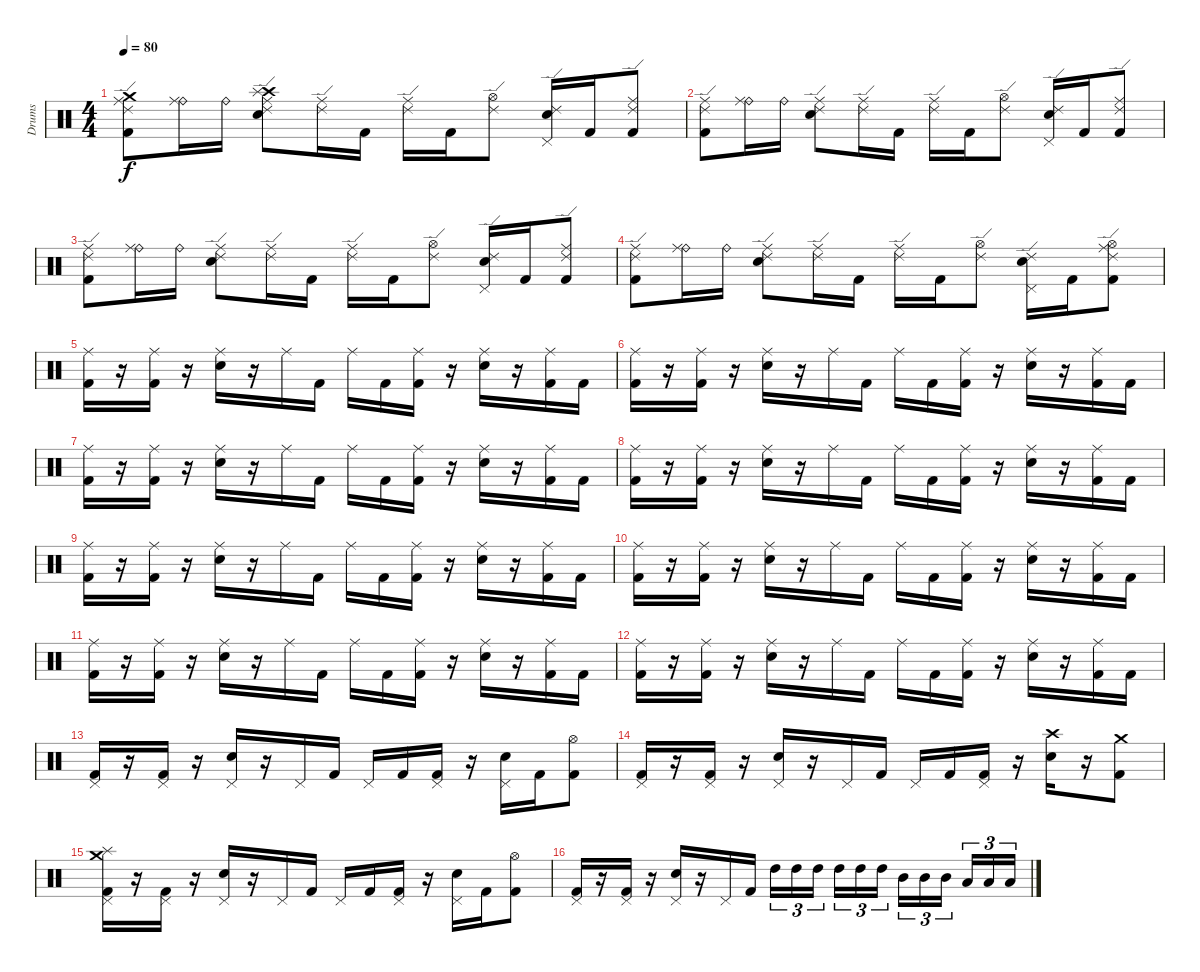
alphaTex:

\track ("Drums" "Drums") {instrument percussion}
\staff {score}
\articulation defaults
\ts (4 4)
\tempo 80
\clef neutral
\ks c
("Ride (edge) 2" "Ride (middle)" "Crash medium (hit)" "Kick (hit) 2").8{dy f} ("Ride (bell)" "Ride (middle)").16 "Ride (bell)".16 ("Ride (middle)" "Ride (edge) 2" "Crash high (hit)" "Snare (hit) 2" "Splash (hit)").8 ("Ride (edge) 2" "Ride (middle)").16 "Kick (hit) 2".16 ("Ride (edge) 2" "Ride (middle)").16 "Kick (hit) 2".16 ("Ride (edge) 2" "Hi-Hat (open)").8 ("Ride (edge) 2" "Pedal Hi-Hat (hit)" "Snare (hit) 2").16 "Kick (hit) 2".16 ("Ride (edge) 2" "Ride (middle)" "Kick (hit) 2").8 |
("Ride (edge) 2" "Ride (middle)" "Kick (hit) 2").8 ("Ride (bell)" "Ride (middle)").16 "Ride (bell)".16 ("Ride (middle)" "Ride (edge) 2" "Snare (hit) 2").8 ("Ride (edge) 2" "Ride (middle)").16 "Kick (hit) 2".16 ("Ride (edge) 2" "Ride (middle)").16 "Kick (hit) 2".16 ("Ride (edge) 2" "Hi-Hat (open)").8 ("Ride (edge) 2" "Pedal Hi-Hat (hit)" "Snare (hit) 2").16 "Kick (hit) 2".16 ("Ride (edge) 2" "Ride (middle)" "Kick (hit) 2").8 |
("Ride (edge) 2" "Ride (middle)" "Kick (hit) 2").8 ("Ride (bell)" "Ride (middle)").16 "Ride (bell)".16 ("Ride (middle)" "Ride (edge) 2" "Snare (hit) 2").8 ("Ride (edge) 2" "Ride (middle)").16 "Kick (hit) 2".16 ("Ride (edge) 2" "Ride (middle)").16 "Kick (hit) 2".16 ("Ride (edge) 2" "Hi-Hat (open)").8 ("Ride (edge) 2" "Pedal Hi-Hat (hit)" "Snare (hit) 2").16 "Kick (hit) 2".16 ("Ride (edge) 2" "Ride (middle)" "Kick (hit) 2").8 |
("Ride (edge) 2" "Ride (middle)" "Kick (hit) 2").8 ("Ride (bell)" "Ride (middle)").16 "Ride (bell)".16 ("Ride (middle)" "Ride (edge) 2" "Snare (hit) 2").8 ("Ride (edge) 2" "Ride (middle)").16 "Kick (hit) 2".16 ("Ride (edge) 2" "Ride (middle)").16 "Kick (hit) 2".16 ("Ride (edge) 2" "Hi-Hat (open)").8 ("Ride (edge) 2" "Pedal Hi-Hat (hit)" "Snare (hit) 2").16 "Kick (hit) 2".16 ("Ride (edge) 2" "Ride (middle)" "Hi-Hat (open)" "Kick (hit) 2").8 |
("Ride (middle)" "Kick (hit) 2").16 r.16 ("Ride (middle)" "Kick (hit) 2").16 r.16 ("Ride (middle)" "Snare (hit) 2").16 r.16 "Ride (middle)".16 "Kick (hit) 2".16 "Ride (middle)".16 "Kick (hit) 2".16 ("Ride (middle)" "Kick (hit) 2").16 r.16 ("Ride (middle)" "Snare (hit) 2").16 r.16 ("Ride (middle)" "Kick (hit) 2").16 "Kick (hit) 2".16 |
("Ride (middle)" "Kick (hit) 2").16 r.16 ("Ride (middle)" "Kick (hit) 2").16 r.16 ("Ride (middle)" "Snare (hit) 2").16 r.16 "Ride (middle)".16 "Kick (hit) 2".16 "Ride (middle)".16 "Kick (hit) 2".16 ("Ride (middle)" "Kick (hit) 2").16 r.16 ("Ride (middle)" "Snare (hit) 2").16 r.16 ("Ride (middle)" "Kick (hit) 2").16 "Kick (hit) 2".16 |
("Ride (middle)" "Kick (hit) 2").16 r.16 ("Ride (middle)" "Kick (hit) 2").16 r.16 ("Ride (middle)" "Snare (hit) 2").16 r.16 "Ride (middle)".16 "Kick (hit) 2".16 "Ride (middle)".16 "Kick (hit) 2".16 ("Ride (middle)" "Kick (hit) 2").16 r.16 ("Ride (middle)" "Snare (hit) 2").16 r.16 ("Ride (middle)" "Kick (hit) 2").16 "Kick (hit) 2".16 |
("Ride (middle)" "Kick (hit) 2").16 r.16 ("Ride (middle)" "Kick (hit) 2").16 r.16 ("Ride (middle)" "Snare (hit) 2").16 r.16 "Ride (middle)".16 "Kick (hit) 2".16 "Ride (middle)".16 "Kick (hit) 2".16 ("Ride (middle)" "Kick (hit) 2").16 r.16 ("Ride (middle)" "Snare (hit) 2").16 r.16 ("Ride (middle)" "Kick (hit) 2").16 "Kick (hit) 2".16 |
("Ride (middle)" "Kick (hit) 2").16 r.16 ("Ride (middle)" "Kick (hit) 2").16 r.16 ("Ride (middle)" "Snare (hit) 2").16 r.16 "Ride (middle)".16 "Kick (hit) 2".16 "Ride (middle)".16 "Kick (hit) 2".16 ("Ride (middle)" "Kick (hit) 2").16 r.16 ("Ride (middle)" "Snare (hit) 2").16 r.16 ("Ride (middle)" "Kick (hit) 2").16 "Kick (hit) 2".16 |
("Ride (middle)" "Kick (hit) 2").16 r.16 ("Ride (middle)" "Kick (hit) 2").16 r.16 ("Ride (middle)" "Snare (hit) 2").16 r.16 "Ride (middle)".16 "Kick (hit) 2".16 "Ride (middle)".16 "Kick (hit) 2".16 ("Ride (middle)" "Kick (hit) 2").16 r.16 ("Ride (middle)" "Snare (hit) 2").16 r.16 ("Ride (middle)" "Kick (hit) 2").16 "Kick (hit) 2".16 |
("Ride (middle)" "Kick (hit) 2").16 r.16 ("Ride (middle)" "Kick (hit) 2").16 r.16 ("Ride (middle)" "Snare (hit) 2").16 r.16 "Ride (middle)".16 "Kick (hit) 2".16 "Ride (middle)".16 "Kick (hit) 2".16 ("Ride (middle)" "Kick (hit) 2").16 r.16 ("Ride (middle)" "Snare (hit) 2").16 r.16 ("Ride (middle)" "Kick (hit) 2").16 "Kick (hit) 2".16 |
("Ride (middle)" "Kick (hit) 2").16 r.16 ("Ride (middle)" "Kick (hit) 2").16 r.16 ("Ride (middle)" "Snare (hit) 2").16 r.16 "Ride (middle)".16 "Kick (hit) 2".16 "Ride (middle)".16 "Kick (hit) 2".16 ("Ride (middle)" "Kick (hit) 2").16 r.16 ("Ride (middle)" "Snare (hit) 2").16 r.16 ("Ride (middle)" "Kick (hit) 2").16 "Kick (hit) 2".16 |
("Pedal Hi-Hat (hit)" "Kick (hit) 2").16 r.16 ("Pedal Hi-Hat (hit)" "Kick (hit) 2").16 r.16 ("Pedal Hi-Hat (hit)" "Snare (hit) 2").16 r.16 "Pedal Hi-Hat (hit)".16 "Kick (hit) 2".16 "Pedal Hi-Hat (hit)".16 "Kick (hit) 2".16 ("Pedal Hi-Hat (hit)" "Kick (hit) 2").16 r.16 ("Pedal Hi-Hat (hit)" "Snare (hit) 2").16 "Kick (hit) 2".16 ("Hi-Hat (open)" "Kick (hit) 2").8 |
("Pedal Hi-Hat (hit)" "Kick (hit) 2").16 r.16 ("Pedal Hi-Hat (hit)" "Kick (hit) 2").16 r.16 ("Pedal Hi-Hat (hit)" "Snare (hit) 2").16 r.16 "Pedal Hi-Hat (hit)".16 "Kick (hit) 2".16 "Pedal Hi-Hat (hit)".16 "Kick (hit) 2".16 ("Pedal Hi-Hat (hit)" "Kick (hit) 2").16 r.16 ("Crash high (hit)" "Snare (hit) 2").16 r.16 ("Crash medium (hit)" "Kick (hit) 2").8 |
("Pedal Hi-Hat (hit)" "Splash (hit)" "Crash medium (hit)" "Kick (hit) 2").16 r.16 ("Pedal Hi-Hat (hit)" "Kick (hit) 2").16 r.16 ("Pedal Hi-Hat (hit)" "Snare (hit) 2").16 r.16 "Pedal Hi-Hat (hit)".16 "Kick (hit) 2".16 "Pedal Hi-Hat (hit)".16 "Kick (hit) 2".16 ("Pedal Hi-Hat (hit)" "Kick (hit) 2").16 r.16 ("Pedal Hi-Hat (hit)" "Snare (hit) 2").16 "Kick (hit) 2".16 ("Hi-Hat (open)" "Kick (hit) 2").8 |
("Pedal Hi-Hat (hit)" "Kick (hit) 2").16 r.16 ("Pedal Hi-Hat (hit)" "Kick (hit) 2").16 r.16 ("Pedal Hi-Hat (hit)" "Snare (hit) 2").16 r.16 "Pedal Hi-Hat (hit)".16 "Kick (hit) 2".16 "High Tom (hit)".16{tu (3 2)} "High Tom (hit)".16{tu (3 2)} "High Tom (hit)".16{tu (3 2)} "High Tom (hit)".16{tu (3 2)} "High Tom (hit)".16{tu (3 2)} "High Tom (hit)".16{tu (3 2)} "Mid Tom (hit)".16{tu (3 2)} "Mid Tom (hit)".16{tu (3 2)} "Mid Tom (hit)".16{tu (3 2)} "Low Tom (hit)".16{tu (3 2)} "Low Tom (hit)".16{tu (3 2)} "Low Tom (hit)".16{tu (3 2)}
